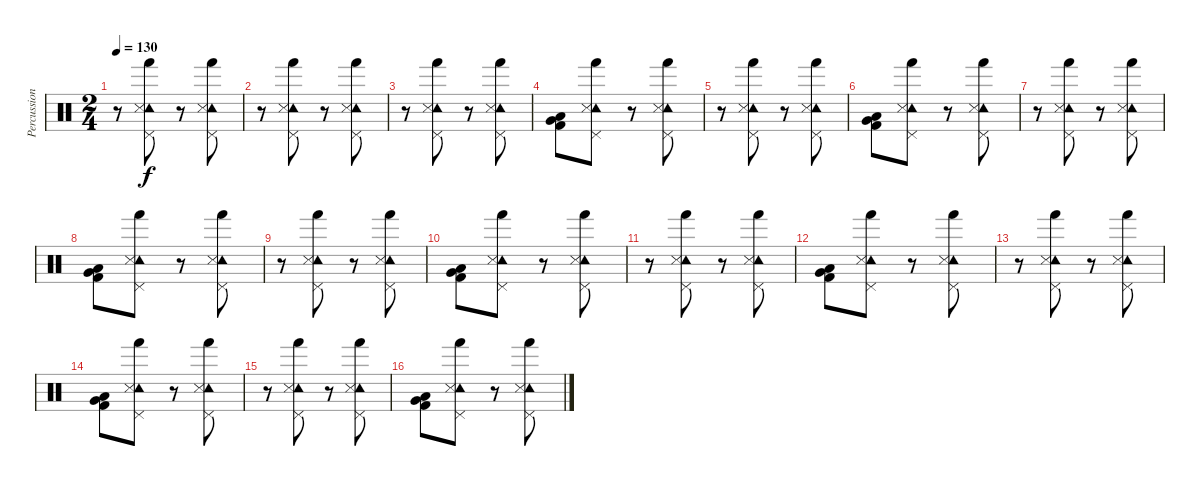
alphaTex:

\track ("Percussion" "Percussion") {instrument percussion}
\staff {score}
\articulation defaults
\ts (2 4)
\tempo 130
\clef neutral
\ks c
r.8{dy f} ("Tambourine (hit)" "Snare (side stick) 3" "Pedal Hi-Hat (hit)" "Hand (hit)").8 r.8 ("Tambourine (hit)" "Snare (side stick) 3" "Pedal Hi-Hat (hit)" "Hand (hit)").8 |
r.8 ("Tambourine (hit)" "Snare (side stick) 3" "Pedal Hi-Hat (hit)" "Hand (hit)").8 r.8 ("Tambourine (hit)" "Snare (side stick) 3" "Pedal Hi-Hat (hit)" "Hand (hit)").8 |
r.8 ("Tambourine (hit)" "Snare (side stick) 3" "Pedal Hi-Hat (hit)" "Hand (hit)").8 r.8 ("Tambourine (hit)" "Snare (side stick) 3" "Pedal Hi-Hat (hit)" "Hand (hit)").8 |
("Very Low Tom (hit)" "Low Tom (hit)" "Kick (hit) 2").8 ("Tambourine (hit)" "Snare (side stick) 3" "Pedal Hi-Hat (hit)" "Hand (hit)").8 r.8 ("Tambourine (hit)" "Snare (side stick) 3" "Pedal Hi-Hat (hit)" "Hand (hit)").8 |
r.8 ("Tambourine (hit)" "Snare (side stick) 3" "Pedal Hi-Hat (hit)" "Hand (hit)").8 r.8 ("Tambourine (hit)" "Snare (side stick) 3" "Pedal Hi-Hat (hit)" "Hand (hit)").8 |
("Very Low Tom (hit)" "Low Tom (hit)" "Kick (hit) 2").8 ("Tambourine (hit)" "Snare (side stick) 3" "Pedal Hi-Hat (hit)" "Hand (hit)").8 r.8 ("Tambourine (hit)" "Snare (side stick) 3" "Pedal Hi-Hat (hit)" "Hand (hit)").8 |
r.8 ("Tambourine (hit)" "Snare (side stick) 3" "Pedal Hi-Hat (hit)" "Hand (hit)").8 r.8 ("Tambourine (hit)" "Snare (side stick) 3" "Pedal Hi-Hat (hit)" "Hand (hit)").8 |
("Very Low Tom (hit)" "Low Tom (hit)" "Kick (hit) 2").8 ("Tambourine (hit)" "Snare (side stick) 3" "Pedal Hi-Hat (hit)" "Hand (hit)").8 r.8 ("Tambourine (hit)" "Snare (side stick) 3" "Pedal Hi-Hat (hit)" "Hand (hit)").8 |
r.8 ("Tambourine (hit)" "Snare (side stick) 3" "Pedal Hi-Hat (hit)" "Hand (hit)").8 r.8 ("Tambourine (hit)" "Snare (side stick) 3" "Pedal Hi-Hat (hit)" "Hand (hit)").8 |
("Very Low Tom (hit)" "Low Tom (hit)" "Kick (hit) 2").8 ("Tambourine (hit)" "Snare (side stick) 3" "Pedal Hi-Hat (hit)" "Hand (hit)").8 r.8 ("Tambourine (hit)" "Snare (side stick) 3" "Pedal Hi-Hat (hit)" "Hand (hit)").8 |
r.8 ("Tambourine (hit)" "Snare (side stick) 3" "Pedal Hi-Hat (hit)" "Hand (hit)").8 r.8 ("Tambourine (hit)" "Snare (side stick) 3" "Pedal Hi-Hat (hit)" "Hand (hit)").8 |
("Very Low Tom (hit)" "Low Tom (hit)" "Kick (hit) 2").8 ("Tambourine (hit)" "Snare (side stick) 3" "Pedal Hi-Hat (hit)" "Hand (hit)").8 r.8 ("Tambourine (hit)" "Snare (side stick) 3" "Pedal Hi-Hat (hit)" "Hand (hit)").8 |
r.8 ("Tambourine (hit)" "Snare (side stick) 3" "Pedal Hi-Hat (hit)" "Hand (hit)").8 r.8 ("Tambourine (hit)" "Snare (side stick) 3" "Pedal Hi-Hat (hit)" "Hand (hit)").8 |
("Very Low Tom (hit)" "Low Tom (hit)" "Kick (hit) 2").8 ("Tambourine (hit)" "Snare (side stick) 3" "Pedal Hi-Hat (hit)" "Hand (hit)").8 r.8 ("Tambourine (hit)" "Snare (side stick) 3" "Pedal Hi-Hat (hit)" "Hand (hit)").8 |
r.8 ("Tambourine (hit)" "Snare (side stick) 3" "Pedal Hi-Hat (hit)" "Hand (hit)").8 r.8 ("Tambourine (hit)" "Snare (side stick) 3" "Pedal Hi-Hat (hit)" "Hand (hit)").8 |
("Very Low Tom (hit)" "Low Tom (hit)" "Kick (hit) 2").8 ("Tambourine (hit)" "Snare (side stick) 3" "Pedal Hi-Hat (hit)" "Hand (hit)").8 r.8 ("Tambourine (hit)" "Snare (side stick) 3" "Pedal Hi-Hat (hit)" "Hand (hit)").8
